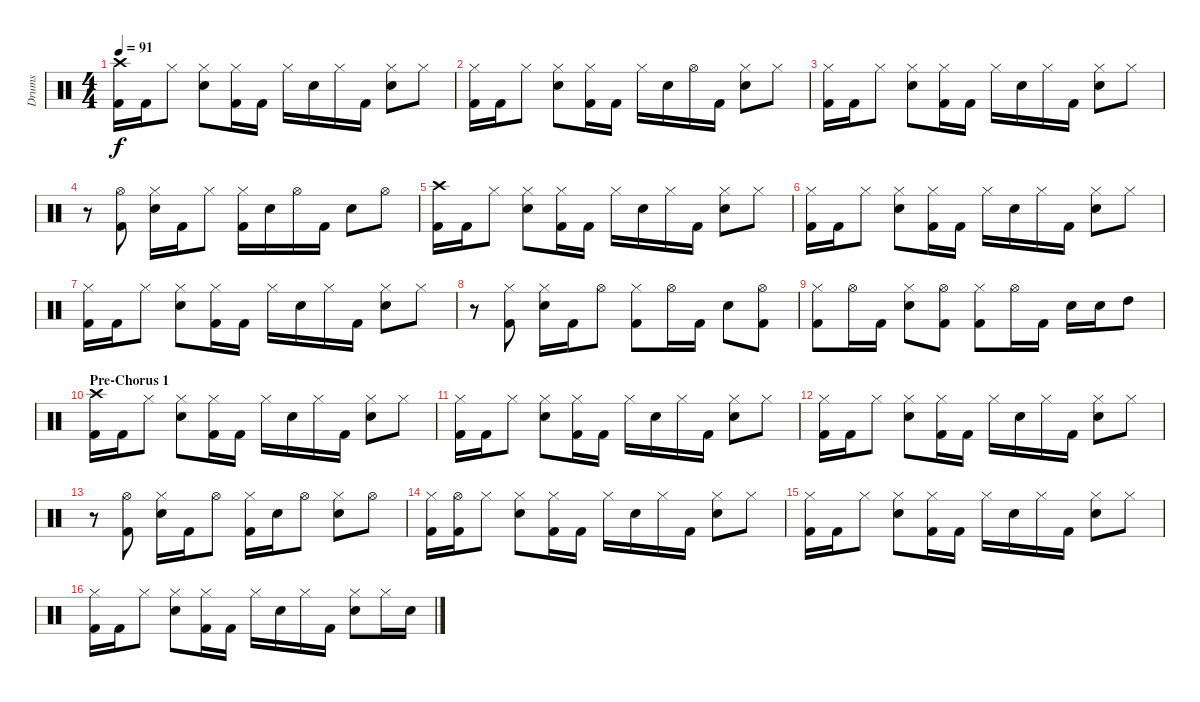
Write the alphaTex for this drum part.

\track ("Drums" "Drums") {instrument percussion}
\staff {score}
\articulation defaults
\ts (4 4)
\tempo 91
\clef neutral
\ks c
("Crash high (hit)" "Kick (hit) 2").16{dy f} "Kick (hit) 2".16 "Hi-Hat (closed)".8 ("Hi-Hat (closed)" "Electric Snare (hit)").8 ("Hi-Hat (closed)" "Kick (hit) 2").16 "Kick (hit) 2".16 "Hi-Hat (closed)".16 "Electric Snare (hit)".16 "Hi-Hat (closed)".16 "Kick (hit) 2".16 ("Hi-Hat (closed)" "Electric Snare (hit)").8 "Hi-Hat (closed)".8 |
("Hi-Hat (closed)" "Kick (hit) 2").16 "Kick (hit) 2".16 "Hi-Hat (closed)".8 ("Hi-Hat (closed)" "Electric Snare (hit)").8 ("Hi-Hat (closed)" "Kick (hit) 2").16 "Kick (hit) 2".16 "Hi-Hat (closed)".16 "Electric Snare (hit)".16 "Hi-Hat (open)".16 "Kick (hit) 2".16 ("Hi-Hat (closed)" "Electric Snare (hit)").8 "Hi-Hat (closed)".8 |
("Hi-Hat (closed)" "Kick (hit) 2").16 "Kick (hit) 2".16 "Hi-Hat (closed)".8 ("Hi-Hat (closed)" "Electric Snare (hit)").8 ("Hi-Hat (closed)" "Kick (hit) 2").16 "Kick (hit) 2".16 "Hi-Hat (closed)".16 "Electric Snare (hit)".16 "Hi-Hat (closed)".16 "Kick (hit) 2".16 ("Hi-Hat (closed)" "Electric Snare (hit)").8 "Hi-Hat (closed)".8 |
r.8 ("Hi-Hat (open)" "Kick (hit) 2").8 ("Hi-Hat (closed)" "Electric Snare (hit)").16 "Kick (hit) 2".16 "Hi-Hat (closed)".8 ("Hi-Hat (closed)" "Kick (hit) 2").16 "Electric Snare (hit)".16 "Hi-Hat (open)".16 "Kick (hit) 2".16 "Electric Snare (hit)".8 "Hi-Hat (open)".8 |
("Crash high (hit)" "Kick (hit) 2").16 "Kick (hit) 2".16 "Hi-Hat (closed)".8 ("Hi-Hat (closed)" "Electric Snare (hit)").8 ("Hi-Hat (closed)" "Kick (hit) 2").16 "Kick (hit) 2".16 "Hi-Hat (closed)".16 "Electric Snare (hit)".16 "Hi-Hat (closed)".16 "Kick (hit) 2".16 ("Hi-Hat (closed)" "Electric Snare (hit)").8 "Hi-Hat (closed)".8 |
("Hi-Hat (closed)" "Kick (hit) 2").16 "Kick (hit) 2".16 "Hi-Hat (closed)".8 ("Hi-Hat (closed)" "Electric Snare (hit)").8 ("Hi-Hat (closed)" "Kick (hit) 2").16 "Kick (hit) 2".16 "Hi-Hat (closed)".16 "Electric Snare (hit)".16 "Hi-Hat (closed)".16 "Kick (hit) 2".16 ("Hi-Hat (closed)" "Electric Snare (hit)").8 "Hi-Hat (closed)".8 |
("Hi-Hat (closed)" "Kick (hit) 2").16 "Kick (hit) 2".16 "Hi-Hat (closed)".8 ("Hi-Hat (closed)" "Electric Snare (hit)").8 ("Hi-Hat (closed)" "Kick (hit) 2").16 "Kick (hit) 2".16 "Hi-Hat (closed)".16 "Electric Snare (hit)".16 "Hi-Hat (closed)".16 "Kick (hit) 2".16 ("Hi-Hat (closed)" "Electric Snare (hit)").8 "Hi-Hat (closed)".8 |
r.8 ("Hi-Hat (closed)" "Kick (hit) 2").8 ("Hi-Hat (closed)" "Electric Snare (hit)").16 "Kick (hit) 2".16 "Hi-Hat (open)".8 ("Hi-Hat (closed)" "Kick (hit) 2").8 "Hi-Hat (open)".16 "Kick (hit) 2".16 "Electric Snare (hit)".8 ("Hi-Hat (open)" "Kick (hit) 2").8 |
("Hi-Hat (closed)" "Kick (hit) 2").8 "Hi-Hat (open)".16 "Kick (hit) 2".16 ("Hi-Hat (closed)" "Electric Snare (hit)").8 ("Hi-Hat (open)" "Kick (hit) 2").8 ("Hi-Hat (closed)" "Kick (hit) 2").8 "Hi-Hat (open)".16 "Kick (hit) 2".16 "Electric Snare (hit)".16 "Electric Snare (hit)".16 "High Tom (hit)".8 |
\section ("" "Pre-Chorus 1")
("Crash high (hit)" "Kick (hit) 2").16 "Kick (hit) 2".16 "Hi-Hat (closed)".8 ("Hi-Hat (closed)" "Electric Snare (hit)").8 ("Hi-Hat (closed)" "Kick (hit) 2").16 "Kick (hit) 2".16 "Hi-Hat (closed)".16 "Electric Snare (hit)".16 "Hi-Hat (closed)".16 "Kick (hit) 2".16 ("Hi-Hat (closed)" "Electric Snare (hit)").8 "Hi-Hat (closed)".8 |
("Hi-Hat (closed)" "Kick (hit) 2").16 "Kick (hit) 2".16 "Hi-Hat (closed)".8 ("Hi-Hat (closed)" "Electric Snare (hit)").8 ("Hi-Hat (closed)" "Kick (hit) 2").16 "Kick (hit) 2".16 "Hi-Hat (closed)".16 "Electric Snare (hit)".16 "Hi-Hat (closed)".16 "Kick (hit) 2".16 ("Hi-Hat (closed)" "Electric Snare (hit)").8 "Hi-Hat (closed)".8 |
("Hi-Hat (closed)" "Kick (hit) 2").16 "Kick (hit) 2".16 "Hi-Hat (closed)".8 ("Hi-Hat (closed)" "Electric Snare (hit)").8 ("Hi-Hat (closed)" "Kick (hit) 2").16 "Kick (hit) 2".16 "Hi-Hat (closed)".16 "Electric Snare (hit)".16 "Hi-Hat (closed)".16 "Kick (hit) 2".16 ("Hi-Hat (closed)" "Electric Snare (hit)").8 "Hi-Hat (closed)".8 |
r.8 ("Hi-Hat (open)" "Kick (hit) 2").8 ("Hi-Hat (closed)" "Electric Snare (hit)").16 "Kick (hit) 2".16 "Hi-Hat (open)".8 ("Hi-Hat (closed)" "Kick (hit) 2").16 "Electric Snare (hit)".16 "Hi-Hat (open)".8 ("Hi-Hat (closed)" "Electric Snare (hit)").8 "Hi-Hat (open)".8 |
("Hi-Hat (closed)" "Kick (hit) 2").16 ("Hi-Hat (open)" "Kick (hit) 2").16 "Hi-Hat (closed)".8 ("Hi-Hat (closed)" "Electric Snare (hit)").8 ("Hi-Hat (closed)" "Kick (hit) 2").16 "Kick (hit) 2".16 "Hi-Hat (closed)".16 "Electric Snare (hit)".16 "Hi-Hat (closed)".16 "Kick (hit) 2".16 ("Hi-Hat (closed)" "Electric Snare (hit)").8 "Hi-Hat (closed)".8 |
("Hi-Hat (closed)" "Kick (hit) 2").16 "Kick (hit) 2".16 "Hi-Hat (closed)".8 ("Hi-Hat (closed)" "Electric Snare (hit)").8 ("Hi-Hat (closed)" "Kick (hit) 2").16 "Kick (hit) 2".16 "Hi-Hat (closed)".16 "Electric Snare (hit)".16 "Hi-Hat (closed)".16 "Kick (hit) 2".16 ("Hi-Hat (closed)" "Electric Snare (hit)").8 "Hi-Hat (closed)".8 |
("Hi-Hat (closed)" "Kick (hit) 2").16 "Kick (hit) 2".16 "Hi-Hat (closed)".8 ("Hi-Hat (closed)" "Electric Snare (hit)").8 ("Hi-Hat (closed)" "Kick (hit) 2").16 "Kick (hit) 2".16 "Hi-Hat (closed)".16 "Electric Snare (hit)".16 "Hi-Hat (closed)".16 "Kick (hit) 2".16 ("Hi-Hat (closed)" "Electric Snare (hit)").8 "Hi-Hat (closed)".16 "Electric Snare (hit)".16
